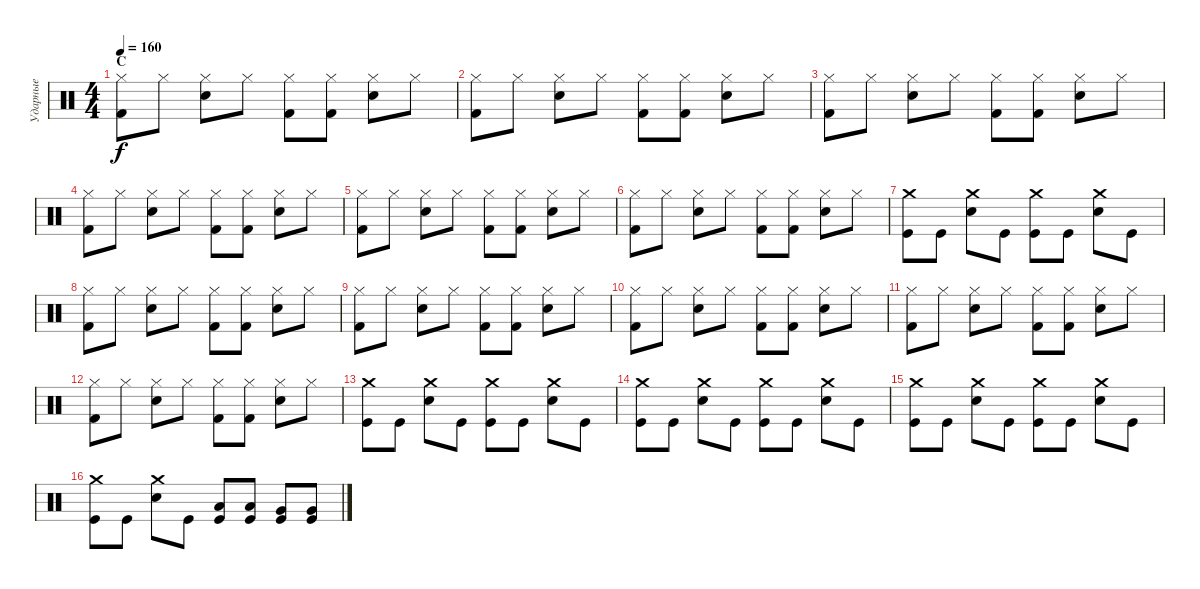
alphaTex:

\track ("Ударные" "Ударные") {instrument percussion}
\staff {score}
\articulation defaults
\ts (4 4)
\section ("" "С")
\tempo 160
\clef neutral
\ks c
("Kick (hit) 2" "Hi-Hat (closed)").8{dy f} "Hi-Hat (closed)".8 ("Hi-Hat (closed)" "Electric Snare (hit)").8 "Hi-Hat (closed)".8 ("Kick (hit) 2" "Hi-Hat (closed)").8 ("Kick (hit) 2" "Hi-Hat (closed)").8 ("Hi-Hat (closed)" "Electric Snare (hit)").8 "Hi-Hat (closed)".8 |
("Kick (hit) 2" "Hi-Hat (closed)").8 "Hi-Hat (closed)".8 ("Hi-Hat (closed)" "Electric Snare (hit)").8 "Hi-Hat (closed)".8 ("Kick (hit) 2" "Hi-Hat (closed)").8 ("Kick (hit) 2" "Hi-Hat (closed)").8 ("Hi-Hat (closed)" "Electric Snare (hit)").8 "Hi-Hat (closed)".8 |
("Kick (hit) 2" "Hi-Hat (closed)").8 "Hi-Hat (closed)".8 ("Hi-Hat (closed)" "Electric Snare (hit)").8 "Hi-Hat (closed)".8 ("Kick (hit) 2" "Hi-Hat (closed)").8 ("Kick (hit) 2" "Hi-Hat (closed)").8 ("Hi-Hat (closed)" "Electric Snare (hit)").8 "Hi-Hat (closed)".8 |
("Kick (hit) 2" "Hi-Hat (closed)").8 "Hi-Hat (closed)".8 ("Hi-Hat (closed)" "Electric Snare (hit)").8 "Hi-Hat (closed)".8 ("Kick (hit) 2" "Hi-Hat (closed)").8 ("Kick (hit) 2" "Hi-Hat (closed)").8 ("Hi-Hat (closed)" "Electric Snare (hit)").8 "Hi-Hat (closed)".8 |
("Kick (hit) 2" "Hi-Hat (closed)").8 "Hi-Hat (closed)".8 ("Hi-Hat (closed)" "Electric Snare (hit)").8 "Hi-Hat (closed)".8 ("Kick (hit) 2" "Hi-Hat (closed)").8 ("Kick (hit) 2" "Hi-Hat (closed)").8 ("Hi-Hat (closed)" "Electric Snare (hit)").8 "Hi-Hat (closed)".8 |
("Kick (hit) 2" "Hi-Hat (closed)").8 "Hi-Hat (closed)".8 ("Hi-Hat (closed)" "Electric Snare (hit)").8 "Hi-Hat (closed)".8 ("Kick (hit) 2" "Hi-Hat (closed)").8 ("Kick (hit) 2" "Hi-Hat (closed)").8 ("Hi-Hat (closed)" "Electric Snare (hit)").8 "Hi-Hat (closed)".8 |
("Crash medium (hit)" "Kick (hit)").8 "Kick (hit)".8 ("Crash medium (hit)" "Electric Snare (hit)").8 "Kick (hit)".8 ("Crash medium (hit)" "Kick (hit)").8 "Kick (hit)".8 ("Crash medium (hit)" "Electric Snare (hit)").8 "Kick (hit)".8 |
("Kick (hit) 2" "Hi-Hat (closed)").8 "Hi-Hat (closed)".8 ("Hi-Hat (closed)" "Electric Snare (hit)").8 "Hi-Hat (closed)".8 ("Kick (hit) 2" "Hi-Hat (closed)").8 ("Kick (hit) 2" "Hi-Hat (closed)").8 ("Hi-Hat (closed)" "Electric Snare (hit)").8 "Hi-Hat (closed)".8 |
("Kick (hit) 2" "Hi-Hat (closed)").8 "Hi-Hat (closed)".8 ("Hi-Hat (closed)" "Electric Snare (hit)").8 "Hi-Hat (closed)".8 ("Kick (hit) 2" "Hi-Hat (closed)").8 ("Kick (hit) 2" "Hi-Hat (closed)").8 ("Hi-Hat (closed)" "Electric Snare (hit)").8 "Hi-Hat (closed)".8 |
("Kick (hit) 2" "Hi-Hat (closed)").8 "Hi-Hat (closed)".8 ("Hi-Hat (closed)" "Electric Snare (hit)").8 "Hi-Hat (closed)".8 ("Kick (hit) 2" "Hi-Hat (closed)").8 ("Kick (hit) 2" "Hi-Hat (closed)").8 ("Hi-Hat (closed)" "Electric Snare (hit)").8 "Hi-Hat (closed)".8 |
("Kick (hit) 2" "Hi-Hat (closed)").8 "Hi-Hat (closed)".8 ("Hi-Hat (closed)" "Electric Snare (hit)").8 "Hi-Hat (closed)".8 ("Kick (hit) 2" "Hi-Hat (closed)").8 ("Kick (hit) 2" "Hi-Hat (closed)").8 ("Hi-Hat (closed)" "Electric Snare (hit)").8 "Hi-Hat (closed)".8 |
("Kick (hit) 2" "Hi-Hat (closed)").8 "Hi-Hat (closed)".8 ("Hi-Hat (closed)" "Electric Snare (hit)").8 "Hi-Hat (closed)".8 ("Kick (hit) 2" "Hi-Hat (closed)").8 ("Kick (hit) 2" "Hi-Hat (closed)").8 ("Hi-Hat (closed)" "Electric Snare (hit)").8 "Hi-Hat (closed)".8 |
("Crash medium (hit)" "Kick (hit)").8 "Kick (hit)".8 ("Crash medium (hit)" "Electric Snare (hit)").8 "Kick (hit)".8 ("Crash medium (hit)" "Kick (hit)").8 "Kick (hit)".8 ("Crash medium (hit)" "Electric Snare (hit)").8 "Kick (hit)".8 |
("Crash medium (hit)" "Kick (hit)").8 "Kick (hit)".8 ("Crash medium (hit)" "Electric Snare (hit)").8 "Kick (hit)".8 ("Crash medium (hit)" "Kick (hit)").8 "Kick (hit)".8 ("Crash medium (hit)" "Electric Snare (hit)").8 "Kick (hit)".8 |
("Crash medium (hit)" "Kick (hit)").8 "Kick (hit)".8 ("Crash medium (hit)" "Electric Snare (hit)").8 "Kick (hit)".8 ("Crash medium (hit)" "Kick (hit)").8 "Kick (hit)".8 ("Crash medium (hit)" "Electric Snare (hit)").8 "Kick (hit)".8 |
("Crash medium (hit)" "Kick (hit)").8 "Kick (hit)".8 ("Crash medium (hit)" "Electric Snare (hit)").8 "Kick (hit)".8 ("Low Floor Tom (hit)" "Kick (hit)").8 ("Low Floor Tom (hit)" "Kick (hit)").8 ("Very Low Tom (hit)" "Kick (hit)").8 ("Very Low Tom (hit)" "Kick (hit)").8
